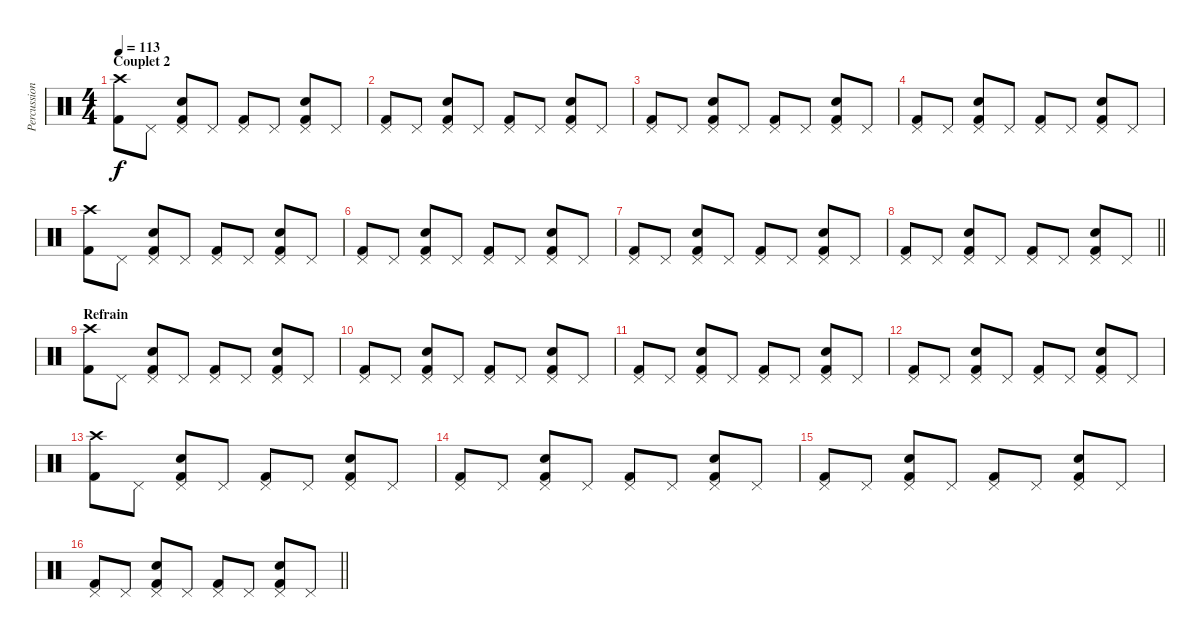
\track ("Percussions" "Percussion") {instrument percussion}
\staff {score}
\articulation defaults
\ts (4 4)
\section ("" "Couplet 2")
\tempo 113
\clef neutral
\ks c
("Crash high (hit)" "Kick (hit) 2").8{dy f} "Pedal Hi-Hat (hit)".8 ("Pedal Hi-Hat (hit)" "Electric Snare (hit)" "Kick (hit) 2").8 "Pedal Hi-Hat (hit)".8 ("Pedal Hi-Hat (hit)" "Kick (hit) 2").8 "Pedal Hi-Hat (hit)".8 ("Pedal Hi-Hat (hit)" "Electric Snare (hit)" "Kick (hit) 2").8 "Pedal Hi-Hat (hit)".8 |
("Pedal Hi-Hat (hit)" "Kick (hit) 2").8 "Pedal Hi-Hat (hit)".8 ("Pedal Hi-Hat (hit)" "Electric Snare (hit)" "Kick (hit) 2").8 "Pedal Hi-Hat (hit)".8 ("Pedal Hi-Hat (hit)" "Kick (hit) 2").8 "Pedal Hi-Hat (hit)".8 ("Pedal Hi-Hat (hit)" "Electric Snare (hit)" "Kick (hit) 2").8 "Pedal Hi-Hat (hit)".8 |
("Pedal Hi-Hat (hit)" "Kick (hit) 2").8 "Pedal Hi-Hat (hit)".8 ("Pedal Hi-Hat (hit)" "Electric Snare (hit)" "Kick (hit) 2").8 "Pedal Hi-Hat (hit)".8 ("Pedal Hi-Hat (hit)" "Kick (hit) 2").8 "Pedal Hi-Hat (hit)".8 ("Pedal Hi-Hat (hit)" "Electric Snare (hit)" "Kick (hit) 2").8 "Pedal Hi-Hat (hit)".8 |
("Pedal Hi-Hat (hit)" "Kick (hit) 2").8 "Pedal Hi-Hat (hit)".8 ("Pedal Hi-Hat (hit)" "Electric Snare (hit)" "Kick (hit) 2").8 "Pedal Hi-Hat (hit)".8 ("Pedal Hi-Hat (hit)" "Kick (hit) 2").8 "Pedal Hi-Hat (hit)".8 ("Pedal Hi-Hat (hit)" "Electric Snare (hit)" "Kick (hit) 2").8 "Pedal Hi-Hat (hit)".8 |
("Crash high (hit)" "Kick (hit) 2").8 "Pedal Hi-Hat (hit)".8 ("Pedal Hi-Hat (hit)" "Electric Snare (hit)" "Kick (hit) 2").8 "Pedal Hi-Hat (hit)".8 ("Pedal Hi-Hat (hit)" "Kick (hit) 2").8 "Pedal Hi-Hat (hit)".8 ("Pedal Hi-Hat (hit)" "Electric Snare (hit)" "Kick (hit) 2").8 "Pedal Hi-Hat (hit)".8 |
("Pedal Hi-Hat (hit)" "Kick (hit) 2").8 "Pedal Hi-Hat (hit)".8 ("Pedal Hi-Hat (hit)" "Electric Snare (hit)" "Kick (hit) 2").8 "Pedal Hi-Hat (hit)".8 ("Pedal Hi-Hat (hit)" "Kick (hit) 2").8 "Pedal Hi-Hat (hit)".8 ("Pedal Hi-Hat (hit)" "Electric Snare (hit)" "Kick (hit) 2").8 "Pedal Hi-Hat (hit)".8 |
("Pedal Hi-Hat (hit)" "Kick (hit) 2").8 "Pedal Hi-Hat (hit)".8 ("Pedal Hi-Hat (hit)" "Electric Snare (hit)" "Kick (hit) 2").8 "Pedal Hi-Hat (hit)".8 ("Pedal Hi-Hat (hit)" "Kick (hit) 2").8 "Pedal Hi-Hat (hit)".8 ("Pedal Hi-Hat (hit)" "Electric Snare (hit)" "Kick (hit) 2").8 "Pedal Hi-Hat (hit)".8 |
\barLineRight lightlight
("Pedal Hi-Hat (hit)" "Kick (hit) 2").8 "Pedal Hi-Hat (hit)".8 ("Pedal Hi-Hat (hit)" "Electric Snare (hit)" "Kick (hit) 2").8 "Pedal Hi-Hat (hit)".8 ("Pedal Hi-Hat (hit)" "Kick (hit) 2").8 "Pedal Hi-Hat (hit)".8 ("Pedal Hi-Hat (hit)" "Electric Snare (hit)" "Kick (hit) 2").8 "Pedal Hi-Hat (hit)".8 |
\section ("" "Refrain")
("Crash high (hit)" "Kick (hit) 2").8 "Pedal Hi-Hat (hit)".8 ("Pedal Hi-Hat (hit)" "Electric Snare (hit)" "Kick (hit) 2").8 "Pedal Hi-Hat (hit)".8 ("Pedal Hi-Hat (hit)" "Kick (hit) 2").8 "Pedal Hi-Hat (hit)".8 ("Pedal Hi-Hat (hit)" "Electric Snare (hit)" "Kick (hit) 2").8 "Pedal Hi-Hat (hit)".8 |
("Pedal Hi-Hat (hit)" "Kick (hit) 2").8 "Pedal Hi-Hat (hit)".8 ("Pedal Hi-Hat (hit)" "Electric Snare (hit)" "Kick (hit) 2").8 "Pedal Hi-Hat (hit)".8 ("Pedal Hi-Hat (hit)" "Kick (hit) 2").8 "Pedal Hi-Hat (hit)".8 ("Pedal Hi-Hat (hit)" "Electric Snare (hit)" "Kick (hit) 2").8 "Pedal Hi-Hat (hit)".8 |
("Pedal Hi-Hat (hit)" "Kick (hit) 2").8 "Pedal Hi-Hat (hit)".8 ("Pedal Hi-Hat (hit)" "Electric Snare (hit)" "Kick (hit) 2").8 "Pedal Hi-Hat (hit)".8 ("Pedal Hi-Hat (hit)" "Kick (hit) 2").8 "Pedal Hi-Hat (hit)".8 ("Pedal Hi-Hat (hit)" "Electric Snare (hit)" "Kick (hit) 2").8 "Pedal Hi-Hat (hit)".8 |
("Pedal Hi-Hat (hit)" "Kick (hit) 2").8 "Pedal Hi-Hat (hit)".8 ("Pedal Hi-Hat (hit)" "Electric Snare (hit)" "Kick (hit) 2").8 "Pedal Hi-Hat (hit)".8 ("Pedal Hi-Hat (hit)" "Kick (hit) 2").8 "Pedal Hi-Hat (hit)".8 ("Pedal Hi-Hat (hit)" "Electric Snare (hit)" "Kick (hit) 2").8 "Pedal Hi-Hat (hit)".8 |
("Crash high (hit)" "Kick (hit) 2").8 "Pedal Hi-Hat (hit)".8 ("Pedal Hi-Hat (hit)" "Electric Snare (hit)" "Kick (hit) 2").8 "Pedal Hi-Hat (hit)".8 ("Pedal Hi-Hat (hit)" "Kick (hit) 2").8 "Pedal Hi-Hat (hit)".8 ("Pedal Hi-Hat (hit)" "Electric Snare (hit)" "Kick (hit) 2").8 "Pedal Hi-Hat (hit)".8 |
("Pedal Hi-Hat (hit)" "Kick (hit) 2").8 "Pedal Hi-Hat (hit)".8 ("Pedal Hi-Hat (hit)" "Electric Snare (hit)" "Kick (hit) 2").8 "Pedal Hi-Hat (hit)".8 ("Pedal Hi-Hat (hit)" "Kick (hit) 2").8 "Pedal Hi-Hat (hit)".8 ("Pedal Hi-Hat (hit)" "Electric Snare (hit)" "Kick (hit) 2").8 "Pedal Hi-Hat (hit)".8 |
("Pedal Hi-Hat (hit)" "Kick (hit) 2").8 "Pedal Hi-Hat (hit)".8 ("Pedal Hi-Hat (hit)" "Electric Snare (hit)" "Kick (hit) 2").8 "Pedal Hi-Hat (hit)".8 ("Pedal Hi-Hat (hit)" "Kick (hit) 2").8 "Pedal Hi-Hat (hit)".8 ("Pedal Hi-Hat (hit)" "Electric Snare (hit)" "Kick (hit) 2").8 "Pedal Hi-Hat (hit)".8 |
\barLineRight lightlight
("Pedal Hi-Hat (hit)" "Kick (hit) 2").8 "Pedal Hi-Hat (hit)".8 ("Pedal Hi-Hat (hit)" "Electric Snare (hit)" "Kick (hit) 2").8 "Pedal Hi-Hat (hit)".8 ("Pedal Hi-Hat (hit)" "Kick (hit) 2").8 "Pedal Hi-Hat (hit)".8 ("Pedal Hi-Hat (hit)" "Electric Snare (hit)" "Kick (hit) 2").8 "Pedal Hi-Hat (hit)".8
